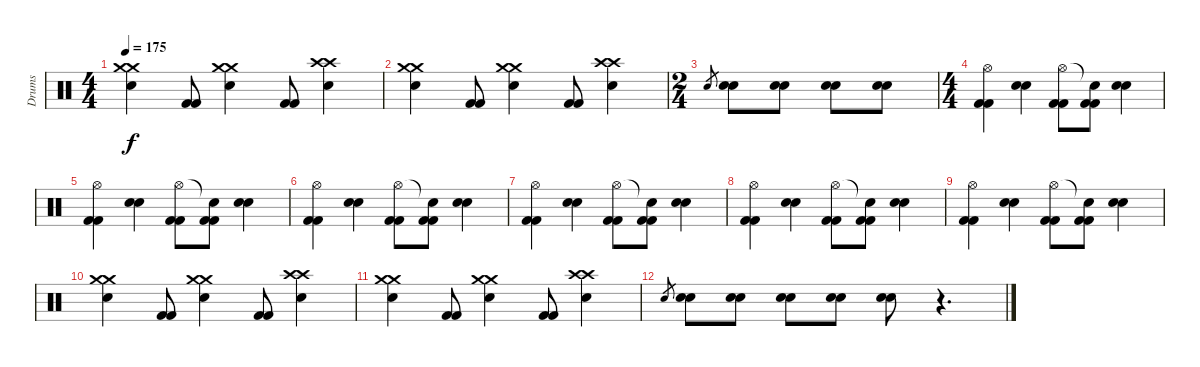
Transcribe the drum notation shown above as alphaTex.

\track ("Drums" "Drums") {instrument percussion}
\staff {score}
\articulation defaults
\ts (4 4)
\tempo 175
\clef neutral
\ks c
("Crash medium (hit)" "Crash medium (hit)" "Snare (hit) 2").4{dy f} ("Kick (hit) 2" "Kick (hit) 2").8 ("Crash medium (hit)" "Crash medium (hit)" "Snare (hit) 2").4 ("Kick (hit) 2" "Kick (hit) 2").8 ("Crash high (hit)" "Crash high (hit)" "Snare (hit) 2").4 |
("Crash medium (hit)" "Crash medium (hit)" "Snare (hit) 2").4 ("Kick (hit) 2" "Kick (hit) 2").8 ("Crash medium (hit)" "Crash medium (hit)" "Snare (hit) 2").4 ("Kick (hit) 2" "Kick (hit) 2").8 ("Crash high (hit)" "Crash high (hit)" "Snare (hit) 2").4 |
\ts (2 4)
"Snare (hit) 2".8{gr} ("Snare (hit) 2" "Snare (hit) 2").8 ("Snare (hit) 2" "Snare (hit) 2").8 ("Snare (hit) 2" "Snare (hit) 2").8 ("Snare (hit) 2" "Snare (hit) 2").8 |
\ts (4 4)
("Kick (hit) 2" "Kick (hit) 2" "Hi-Hat (open)").4 ("Snare (hit) 2" "Snare (hit) 2").4 ("Kick (hit) 2" "Kick (hit) 2" "Hi-Hat (open)").8 ("Kick (hit) 2" "Kick (hit) 2" "Snare (hit)"{t}).8 ("Snare (hit) 2" "Snare (hit) 2").4 |
("Kick (hit) 2" "Kick (hit) 2" "Hi-Hat (open)").4 ("Snare (hit) 2" "Snare (hit) 2").4 ("Kick (hit) 2" "Kick (hit) 2" "Hi-Hat (open)").8 ("Kick (hit) 2" "Kick (hit) 2" "Snare (hit)"{t}).8 ("Snare (hit) 2" "Snare (hit) 2").4 |
("Kick (hit) 2" "Kick (hit) 2" "Hi-Hat (open)").4 ("Snare (hit) 2" "Snare (hit) 2").4 ("Kick (hit) 2" "Kick (hit) 2" "Hi-Hat (open)").8 ("Kick (hit) 2" "Kick (hit) 2" "Snare (hit)"{t}).8 ("Snare (hit) 2" "Snare (hit) 2").4 |
("Kick (hit) 2" "Kick (hit) 2" "Hi-Hat (open)").4 ("Snare (hit) 2" "Snare (hit) 2").4 ("Kick (hit) 2" "Kick (hit) 2" "Hi-Hat (open)").8 ("Kick (hit) 2" "Kick (hit) 2" "Snare (hit)"{t}).8 ("Snare (hit) 2" "Snare (hit) 2").4 |
("Kick (hit) 2" "Kick (hit) 2" "Hi-Hat (open)").4 ("Snare (hit) 2" "Snare (hit) 2").4 ("Kick (hit) 2" "Kick (hit) 2" "Hi-Hat (open)").8 ("Kick (hit) 2" "Kick (hit) 2" "Snare (hit)"{t}).8 ("Snare (hit) 2" "Snare (hit) 2").4 |
("Kick (hit) 2" "Kick (hit) 2" "Hi-Hat (open)").4 ("Snare (hit) 2" "Snare (hit) 2").4 ("Kick (hit) 2" "Kick (hit) 2" "Hi-Hat (open)").8 ("Kick (hit) 2" "Kick (hit) 2" "Snare (hit)"{t}).8 ("Snare (hit) 2" "Snare (hit) 2").4 |
("Crash medium (hit)" "Crash medium (hit)" "Snare (hit) 2").4 ("Kick (hit) 2" "Kick (hit) 2").8 ("Crash medium (hit)" "Crash medium (hit)" "Snare (hit) 2").4 ("Kick (hit) 2" "Kick (hit) 2").8 ("Crash high (hit)" "Crash high (hit)" "Snare (hit) 2").4 |
("Crash medium (hit)" "Crash medium (hit)" "Snare (hit) 2").4 ("Kick (hit) 2" "Kick (hit) 2").8 ("Crash medium (hit)" "Crash medium (hit)" "Snare (hit) 2").4 ("Kick (hit) 2" "Kick (hit) 2").8 ("Crash high (hit)" "Crash high (hit)" "Snare (hit) 2").4 |
"Snare (hit) 2".8{gr} ("Snare (hit) 2" "Snare (hit) 2").8 ("Snare (hit) 2" "Snare (hit) 2").8 ("Snare (hit) 2" "Snare (hit) 2").8 ("Snare (hit) 2" "Snare (hit) 2").8 ("Snare (hit) 2" "Snare (hit) 2").8 r.4{d}
